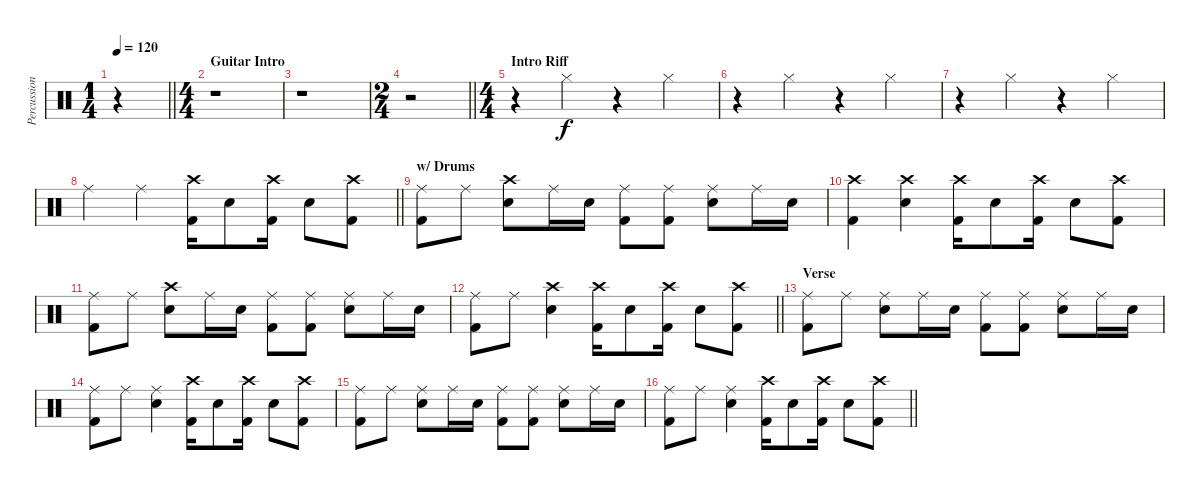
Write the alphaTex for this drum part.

\track ("Percussion" "Percussion") {instrument percussion}
\staff {score}
\articulation defaults
\ts (1 4)
\tempo 120
\clef neutral
\barLineRight lightlight
\ks c
r.4{dy f} |
\ts (4 4)
\section ("" "Guitar Intro")
r.1 |
r.1 |
\ts (2 4)
\barLineRight lightlight
r.2 |
\ts (4 4)
\section ("" "Intro Riff")
r.4 "Hi-Hat (closed)".4 r.4 "Hi-Hat (closed)".4 |
r.4 "Hi-Hat (closed)".4 r.4 "Hi-Hat (closed)".4 |
r.4 "Hi-Hat (closed)".4 r.4 "Hi-Hat (closed)".4 |
\barLineRight lightlight "Ride (middle)".4 "Ride (middle)".4
("Crash high (hit)" "Kick (hit) 2").16 "Electric Snare (hit)".8 ("Crash high (hit)" "Kick (hit) 2").16 "Electric Snare (hit)".8 ("Crash high (hit)" "Kick (hit) 2").8 |
\section ("" "w/ Drums")
("Ride (middle)" "Kick (hit) 2").8 "Ride (middle)".8 ("Crash high (hit)" "Electric Snare (hit)").8 "Ride (middle)".16 "Electric Snare (hit)".16 ("Ride (middle)" "Kick (hit) 2").8 ("Ride (middle)" "Kick (hit) 2").8 ("Ride (middle)" "Electric Snare (hit)").8 "Ride (middle)".16 "Electric Snare (hit)".16 |
("Crash high (hit)" "Kick (hit) 2").4 ("Crash high (hit)" "Electric Snare (hit)").4 ("Crash high (hit)" "Kick (hit) 2").16 "Electric Snare (hit)".8 ("Crash high (hit)" "Kick (hit) 2").16 "Electric Snare (hit)".8 ("Crash high (hit)" "Kick (hit) 2").8 |
("Ride (middle)" "Kick (hit) 2").8 "Ride (middle)".8 ("Crash high (hit)" "Electric Snare (hit)").8 "Ride (middle)".16 "Electric Snare (hit)".16 ("Ride (middle)" "Kick (hit) 2").8 ("Ride (middle)" "Kick (hit) 2").8 ("Ride (middle)" "Electric Snare (hit)").8 "Ride (middle)".16 "Electric Snare (hit)".16 |
\barLineRight lightlight
("Ride (middle)" "Kick (hit) 2").8 "Ride (middle)".8 ("Crash high (hit)" "Electric Snare (hit)").4 ("Crash high (hit)" "Kick (hit) 2").16 "Electric Snare (hit)".8 ("Crash high (hit)" "Kick (hit) 2").16 "Electric Snare (hit)".8 ("Crash high (hit)" "Kick (hit) 2").8 |
\section ("" "Verse")
("Ride (middle)" "Kick (hit) 2").8 "Ride (middle)".8 ("Ride (middle)" "Electric Snare (hit)").8 "Ride (middle)".16 "Electric Snare (hit)".16 ("Ride (middle)" "Kick (hit) 2").8 ("Ride (middle)" "Kick (hit) 2").8 ("Ride (middle)" "Electric Snare (hit)").8 "Ride (middle)".16 "Electric Snare (hit)".16 |
("Ride (middle)" "Kick (hit) 2").8 "Ride (middle)".8 ("Ride (middle)" "Electric Snare (hit)").4 ("Crash high (hit)" "Kick (hit) 2").16 "Electric Snare (hit)".8 ("Crash high (hit)" "Kick (hit) 2").16 "Electric Snare (hit)".8 ("Crash high (hit)" "Kick (hit) 2").8 |
("Ride (middle)" "Kick (hit) 2").8 "Ride (middle)".8 ("Ride (middle)" "Electric Snare (hit)").8 "Ride (middle)".16 "Electric Snare (hit)".16 ("Ride (middle)" "Kick (hit) 2").8 ("Ride (middle)" "Kick (hit) 2").8 ("Ride (middle)" "Electric Snare (hit)").8 "Ride (middle)".16 "Electric Snare (hit)".16 |
\barLineRight lightlight
("Ride (middle)" "Kick (hit) 2").8 "Ride (middle)".8 ("Ride (middle)" "Electric Snare (hit)").4 ("Crash high (hit)" "Kick (hit) 2").16 "Electric Snare (hit)".8 ("Crash high (hit)" "Kick (hit) 2").16 "Electric Snare (hit)".8 ("Crash high (hit)" "Kick (hit) 2").8
